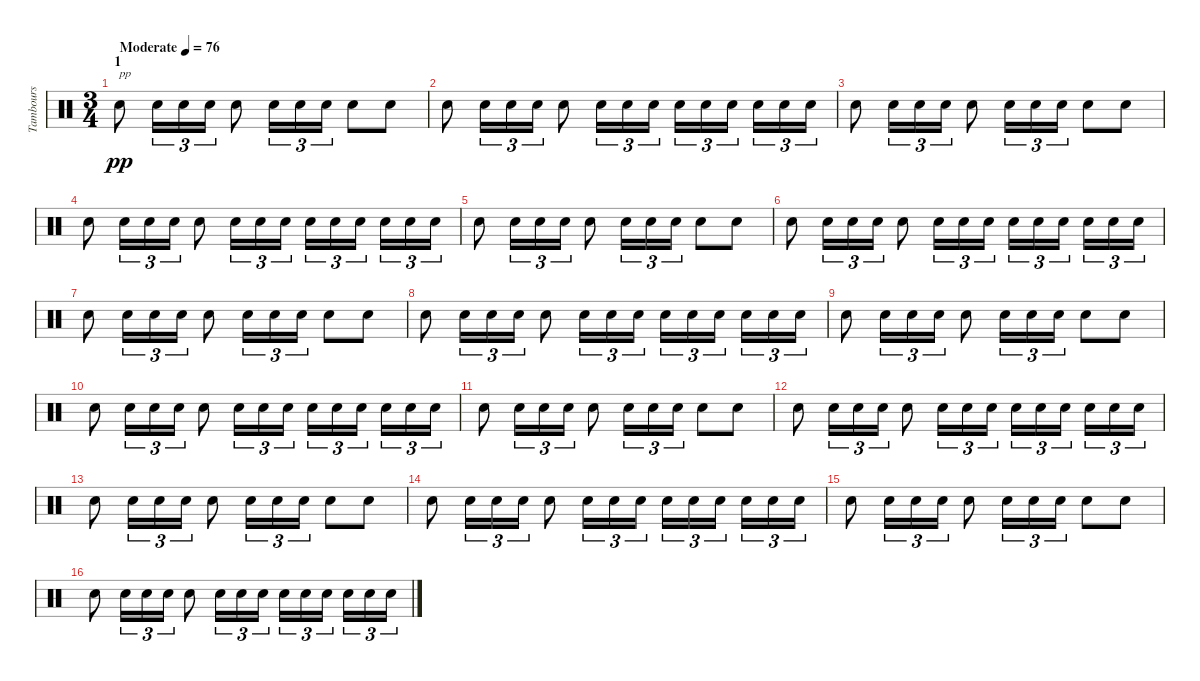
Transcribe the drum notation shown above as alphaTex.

\track ("Tambours" "Tambours") {instrument percussion}
\staff {score}
\articulation defaults
\ts (3 4)
\section ("" "1")
\tempo (76 "Moderate")
\clef neutral
\ks c "Snare (hit) 2".8{txt "pp" dy pp} "Snare (hit) 2".16{tu (3 2)} "Snare (hit) 2".16{tu (3 2)} "Snare (hit) 2".16{tu (3 2)} "Snare (hit) 2".8 "Snare (hit) 2".16{tu (3 2)} "Snare (hit) 2".16{tu (3 2)} "Snare (hit) 2".16{tu (3 2)} "Snare (hit) 2".8 "Snare (hit) 2".8
|
"Snare (hit) 2".8 "Snare (hit) 2".16{tu (3 2)} "Snare (hit) 2".16{tu (3 2)} "Snare (hit) 2".16{tu (3 2)} "Snare (hit) 2".8 "Snare (hit) 2".16{tu (3 2)} "Snare (hit) 2".16{tu (3 2)} "Snare (hit) 2".16{tu (3 2)} "Snare (hit) 2".16{tu (3 2)} "Snare (hit) 2".16{tu (3 2)} "Snare (hit) 2".16{tu (3 2) beam splitsecondary} "Snare (hit) 2".16{tu (3 2)} "Snare (hit) 2".16{tu (3 2)} "Snare (hit) 2".16{tu (3 2)} |
"Snare (hit) 2".8 "Snare (hit) 2".16{tu (3 2)} "Snare (hit) 2".16{tu (3 2)} "Snare (hit) 2".16{tu (3 2)} "Snare (hit) 2".8 "Snare (hit) 2".16{tu (3 2)} "Snare (hit) 2".16{tu (3 2)} "Snare (hit) 2".16{tu (3 2)} "Snare (hit) 2".8 "Snare (hit) 2".8 |
"Snare (hit) 2".8 "Snare (hit) 2".16{tu (3 2)} "Snare (hit) 2".16{tu (3 2)} "Snare (hit) 2".16{tu (3 2)} "Snare (hit) 2".8 "Snare (hit) 2".16{tu (3 2)} "Snare (hit) 2".16{tu (3 2)} "Snare (hit) 2".16{tu (3 2)} "Snare (hit) 2".16{tu (3 2)} "Snare (hit) 2".16{tu (3 2)} "Snare (hit) 2".16{tu (3 2) beam splitsecondary} "Snare (hit) 2".16{tu (3 2)} "Snare (hit) 2".16{tu (3 2)} "Snare (hit) 2".16{tu (3 2)} |
"Snare (hit) 2".8 "Snare (hit) 2".16{tu (3 2)} "Snare (hit) 2".16{tu (3 2)} "Snare (hit) 2".16{tu (3 2)} "Snare (hit) 2".8 "Snare (hit) 2".16{tu (3 2)} "Snare (hit) 2".16{tu (3 2)} "Snare (hit) 2".16{tu (3 2)} "Snare (hit) 2".8 "Snare (hit) 2".8 |
"Snare (hit) 2".8 "Snare (hit) 2".16{tu (3 2)} "Snare (hit) 2".16{tu (3 2)} "Snare (hit) 2".16{tu (3 2)} "Snare (hit) 2".8 "Snare (hit) 2".16{tu (3 2)} "Snare (hit) 2".16{tu (3 2)} "Snare (hit) 2".16{tu (3 2)} "Snare (hit) 2".16{tu (3 2)} "Snare (hit) 2".16{tu (3 2)} "Snare (hit) 2".16{tu (3 2) beam splitsecondary} "Snare (hit) 2".16{tu (3 2)} "Snare (hit) 2".16{tu (3 2)} "Snare (hit) 2".16{tu (3 2)} |
"Snare (hit) 2".8 "Snare (hit) 2".16{tu (3 2)} "Snare (hit) 2".16{tu (3 2)} "Snare (hit) 2".16{tu (3 2)} "Snare (hit) 2".8 "Snare (hit) 2".16{tu (3 2)} "Snare (hit) 2".16{tu (3 2)} "Snare (hit) 2".16{tu (3 2)} "Snare (hit) 2".8 "Snare (hit) 2".8 |
"Snare (hit) 2".8 "Snare (hit) 2".16{tu (3 2)} "Snare (hit) 2".16{tu (3 2)} "Snare (hit) 2".16{tu (3 2)} "Snare (hit) 2".8 "Snare (hit) 2".16{tu (3 2)} "Snare (hit) 2".16{tu (3 2)} "Snare (hit) 2".16{tu (3 2)} "Snare (hit) 2".16{tu (3 2)} "Snare (hit) 2".16{tu (3 2)} "Snare (hit) 2".16{tu (3 2) beam splitsecondary} "Snare (hit) 2".16{tu (3 2)} "Snare (hit) 2".16{tu (3 2)} "Snare (hit) 2".16{tu (3 2)} |
"Snare (hit) 2".8 "Snare (hit) 2".16{tu (3 2)} "Snare (hit) 2".16{tu (3 2)} "Snare (hit) 2".16{tu (3 2)} "Snare (hit) 2".8 "Snare (hit) 2".16{tu (3 2)} "Snare (hit) 2".16{tu (3 2)} "Snare (hit) 2".16{tu (3 2)} "Snare (hit) 2".8 "Snare (hit) 2".8 |
"Snare (hit) 2".8 "Snare (hit) 2".16{tu (3 2)} "Snare (hit) 2".16{tu (3 2)} "Snare (hit) 2".16{tu (3 2)} "Snare (hit) 2".8 "Snare (hit) 2".16{tu (3 2)} "Snare (hit) 2".16{tu (3 2)} "Snare (hit) 2".16{tu (3 2)} "Snare (hit) 2".16{tu (3 2)} "Snare (hit) 2".16{tu (3 2)} "Snare (hit) 2".16{tu (3 2) beam splitsecondary} "Snare (hit) 2".16{tu (3 2)} "Snare (hit) 2".16{tu (3 2)} "Snare (hit) 2".16{tu (3 2)} |
"Snare (hit) 2".8 "Snare (hit) 2".16{tu (3 2)} "Snare (hit) 2".16{tu (3 2)} "Snare (hit) 2".16{tu (3 2)} "Snare (hit) 2".8 "Snare (hit) 2".16{tu (3 2)} "Snare (hit) 2".16{tu (3 2)} "Snare (hit) 2".16{tu (3 2)} "Snare (hit) 2".8 "Snare (hit) 2".8 |
"Snare (hit) 2".8 "Snare (hit) 2".16{tu (3 2)} "Snare (hit) 2".16{tu (3 2)} "Snare (hit) 2".16{tu (3 2)} "Snare (hit) 2".8 "Snare (hit) 2".16{tu (3 2)} "Snare (hit) 2".16{tu (3 2)} "Snare (hit) 2".16{tu (3 2)} "Snare (hit) 2".16{tu (3 2)} "Snare (hit) 2".16{tu (3 2)} "Snare (hit) 2".16{tu (3 2) beam splitsecondary} "Snare (hit) 2".16{tu (3 2)} "Snare (hit) 2".16{tu (3 2)} "Snare (hit) 2".16{tu (3 2)} |
"Snare (hit) 2".8 "Snare (hit) 2".16{tu (3 2)} "Snare (hit) 2".16{tu (3 2)} "Snare (hit) 2".16{tu (3 2)} "Snare (hit) 2".8 "Snare (hit) 2".16{tu (3 2)} "Snare (hit) 2".16{tu (3 2)} "Snare (hit) 2".16{tu (3 2)} "Snare (hit) 2".8 "Snare (hit) 2".8 |
"Snare (hit) 2".8 "Snare (hit) 2".16{tu (3 2)} "Snare (hit) 2".16{tu (3 2)} "Snare (hit) 2".16{tu (3 2)} "Snare (hit) 2".8 "Snare (hit) 2".16{tu (3 2)} "Snare (hit) 2".16{tu (3 2)} "Snare (hit) 2".16{tu (3 2)} "Snare (hit) 2".16{tu (3 2)} "Snare (hit) 2".16{tu (3 2)} "Snare (hit) 2".16{tu (3 2) beam splitsecondary} "Snare (hit) 2".16{tu (3 2)} "Snare (hit) 2".16{tu (3 2)} "Snare (hit) 2".16{tu (3 2)} |
"Snare (hit) 2".8 "Snare (hit) 2".16{tu (3 2)} "Snare (hit) 2".16{tu (3 2)} "Snare (hit) 2".16{tu (3 2)} "Snare (hit) 2".8 "Snare (hit) 2".16{tu (3 2)} "Snare (hit) 2".16{tu (3 2)} "Snare (hit) 2".16{tu (3 2)} "Snare (hit) 2".8 "Snare (hit) 2".8 |
"Snare (hit) 2".8 "Snare (hit) 2".16{tu (3 2)} "Snare (hit) 2".16{tu (3 2)} "Snare (hit) 2".16{tu (3 2)} "Snare (hit) 2".8 "Snare (hit) 2".16{tu (3 2)} "Snare (hit) 2".16{tu (3 2)} "Snare (hit) 2".16{tu (3 2)} "Snare (hit) 2".16{tu (3 2)} "Snare (hit) 2".16{tu (3 2)} "Snare (hit) 2".16{tu (3 2) beam splitsecondary} "Snare (hit) 2".16{tu (3 2)} "Snare (hit) 2".16{tu (3 2)} "Snare (hit) 2".16{tu (3 2)}
